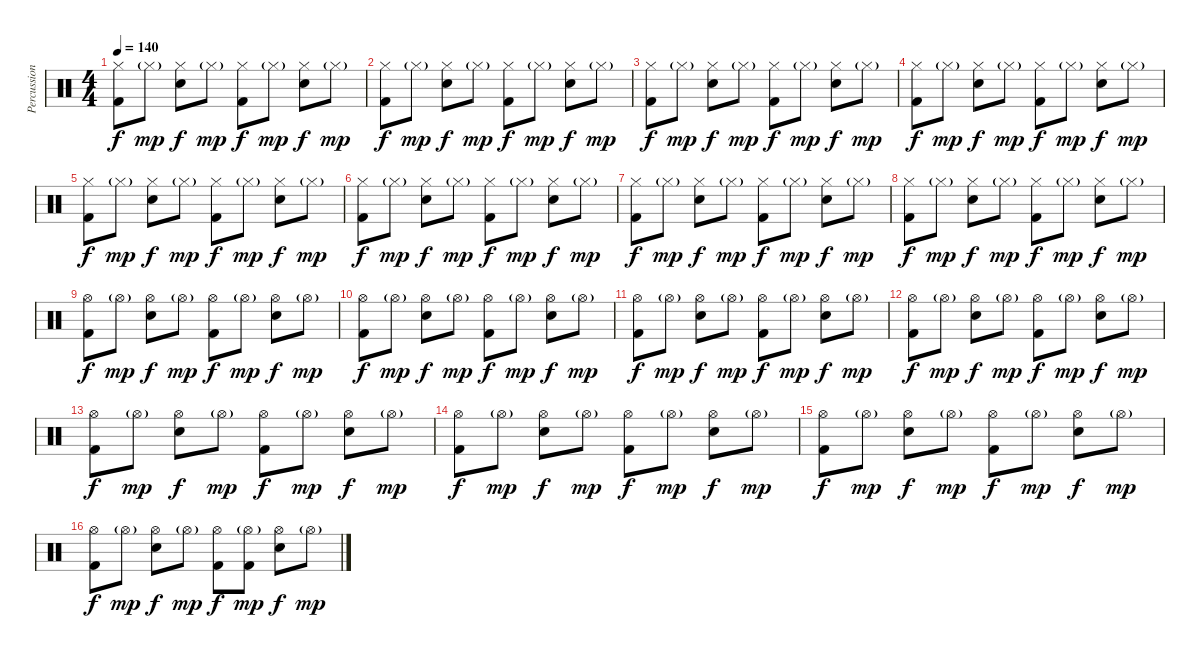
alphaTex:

\track ("Percussion" "Percussion") {instrument percussion}
\staff {score}
\articulation defaults
\ts (4 4)
\tempo 140
\clef neutral
\ks c
("Hi-Hat (closed)" "Kick (hit) 2").8{dy f} "Hi-Hat (closed)"{g}.8{dy mp} ("Hi-Hat (closed)" "Snare (hit) 2").8{dy f} "Hi-Hat (closed)"{g}.8{dy mp} ("Hi-Hat (closed)" "Kick (hit) 2").8{dy f} "Hi-Hat (closed)"{g}.8{dy mp} ("Hi-Hat (closed)" "Snare (hit) 2").8{dy f} "Hi-Hat (closed)"{g}.8{dy mp} |
("Hi-Hat (closed)" "Kick (hit) 2").8{dy f} "Hi-Hat (closed)"{g}.8{dy mp} ("Hi-Hat (closed)" "Snare (hit) 2").8{dy f} "Hi-Hat (closed)"{g}.8{dy mp} ("Hi-Hat (closed)" "Kick (hit) 2").8{dy f} "Hi-Hat (closed)"{g}.8{dy mp} ("Hi-Hat (closed)" "Snare (hit) 2").8{dy f} "Hi-Hat (closed)"{g}.8{dy mp} |
("Hi-Hat (closed)" "Kick (hit) 2").8{dy f} "Hi-Hat (closed)"{g}.8{dy mp} ("Hi-Hat (closed)" "Snare (hit) 2").8{dy f} "Hi-Hat (closed)"{g}.8{dy mp} ("Hi-Hat (closed)" "Kick (hit) 2").8{dy f} "Hi-Hat (closed)"{g}.8{dy mp} ("Hi-Hat (closed)" "Snare (hit) 2").8{dy f} "Hi-Hat (closed)"{g}.8{dy mp} |
("Hi-Hat (closed)" "Kick (hit) 2").8{dy f} "Hi-Hat (closed)"{g}.8{dy mp} ("Hi-Hat (closed)" "Snare (hit) 2").8{dy f} "Hi-Hat (closed)"{g}.8{dy mp} ("Hi-Hat (closed)" "Kick (hit) 2").8{dy f} "Hi-Hat (closed)"{g}.8{dy mp} ("Hi-Hat (closed)" "Snare (hit) 2").8{dy f} "Hi-Hat (closed)"{g}.8{dy mp} |
("Hi-Hat (closed)" "Kick (hit) 2").8{dy f} "Hi-Hat (closed)"{g}.8{dy mp} ("Hi-Hat (closed)" "Snare (hit) 2").8{dy f} "Hi-Hat (closed)"{g}.8{dy mp} ("Hi-Hat (closed)" "Kick (hit) 2").8{dy f} "Hi-Hat (closed)"{g}.8{dy mp} ("Hi-Hat (closed)" "Snare (hit) 2").8{dy f} "Hi-Hat (closed)"{g}.8{dy mp} |
("Hi-Hat (closed)" "Kick (hit) 2").8{dy f} "Hi-Hat (closed)"{g}.8{dy mp} ("Hi-Hat (closed)" "Snare (hit) 2").8{dy f} "Hi-Hat (closed)"{g}.8{dy mp} ("Hi-Hat (closed)" "Kick (hit) 2").8{dy f} "Hi-Hat (closed)"{g}.8{dy mp} ("Hi-Hat (closed)" "Snare (hit) 2").8{dy f} "Hi-Hat (closed)"{g}.8{dy mp} |
("Hi-Hat (closed)" "Kick (hit) 2").8{dy f} "Hi-Hat (closed)"{g}.8{dy mp} ("Hi-Hat (closed)" "Snare (hit) 2").8{dy f} "Hi-Hat (closed)"{g}.8{dy mp} ("Hi-Hat (closed)" "Kick (hit) 2").8{dy f} "Hi-Hat (closed)"{g}.8{dy mp} ("Hi-Hat (closed)" "Snare (hit) 2").8{dy f} "Hi-Hat (closed)"{g}.8{dy mp} |
("Hi-Hat (closed)" "Kick (hit) 2").8{dy f} "Hi-Hat (closed)"{g}.8{dy mp} ("Hi-Hat (closed)" "Snare (hit) 2").8{dy f} "Hi-Hat (closed)"{g}.8{dy mp} ("Hi-Hat (closed)" "Kick (hit) 2").8{dy f} "Hi-Hat (closed)"{g}.8{dy mp} ("Hi-Hat (closed)" "Snare (hit) 2").8{dy f} "Hi-Hat (closed)"{g}.8{dy mp} |
("Hi-Hat (open)" "Kick (hit) 2").8{dy f} "Hi-Hat (open)"{g}.8{dy mp} ("Hi-Hat (open)" "Snare (hit) 2").8{dy f} "Hi-Hat (open)"{g}.8{dy mp} ("Hi-Hat (open)" "Kick (hit) 2").8{dy f} "Hi-Hat (open)"{g}.8{dy mp} ("Hi-Hat (open)" "Snare (hit) 2").8{dy f} "Hi-Hat (open)"{g}.8{dy mp} |
("Hi-Hat (open)" "Kick (hit) 2").8{dy f} "Hi-Hat (open)"{g}.8{dy mp} ("Hi-Hat (open)" "Snare (hit) 2").8{dy f} "Hi-Hat (open)"{g}.8{dy mp} ("Hi-Hat (open)" "Kick (hit) 2").8{dy f} "Hi-Hat (open)"{g}.8{dy mp} ("Hi-Hat (open)" "Snare (hit) 2").8{dy f} "Hi-Hat (open)"{g}.8{dy mp} |
("Hi-Hat (open)" "Kick (hit) 2").8{dy f} "Hi-Hat (open)"{g}.8{dy mp} ("Hi-Hat (open)" "Snare (hit) 2").8{dy f} "Hi-Hat (open)"{g}.8{dy mp} ("Hi-Hat (open)" "Kick (hit) 2").8{dy f} "Hi-Hat (open)"{g}.8{dy mp} ("Hi-Hat (open)" "Snare (hit) 2").8{dy f} "Hi-Hat (open)"{g}.8{dy mp} |
("Hi-Hat (open)" "Kick (hit) 2").8{dy f} "Hi-Hat (open)"{g}.8{dy mp} ("Hi-Hat (open)" "Snare (hit) 2").8{dy f} "Hi-Hat (open)"{g}.8{dy mp} ("Hi-Hat (open)" "Kick (hit) 2").8{dy f} "Hi-Hat (open)"{g}.8{dy mp} ("Hi-Hat (open)" "Snare (hit) 2").8{dy f} "Hi-Hat (open)"{g}.8{dy mp} |
("Hi-Hat (open)" "Kick (hit) 2").8{dy f} "Hi-Hat (open)"{g}.8{dy mp} ("Hi-Hat (open)" "Snare (hit) 2").8{dy f} "Hi-Hat (open)"{g}.8{dy mp} ("Hi-Hat (open)" "Kick (hit) 2").8{dy f} "Hi-Hat (open)"{g}.8{dy mp} ("Hi-Hat (open)" "Snare (hit) 2").8{dy f} "Hi-Hat (open)"{g}.8{dy mp} |
("Hi-Hat (open)" "Kick (hit) 2").8{dy f} "Hi-Hat (open)"{g}.8{dy mp} ("Hi-Hat (open)" "Snare (hit) 2").8{dy f} "Hi-Hat (open)"{g}.8{dy mp} ("Hi-Hat (open)" "Kick (hit) 2").8{dy f} "Hi-Hat (open)"{g}.8{dy mp} ("Hi-Hat (open)" "Snare (hit) 2").8{dy f} "Hi-Hat (open)"{g}.8{dy mp} |
("Hi-Hat (open)" "Kick (hit) 2").8{dy f} "Hi-Hat (open)"{g}.8{dy mp} ("Hi-Hat (open)" "Snare (hit) 2").8{dy f} "Hi-Hat (open)"{g}.8{dy mp} ("Hi-Hat (open)" "Kick (hit) 2").8{dy f} "Hi-Hat (open)"{g}.8{dy mp} ("Hi-Hat (open)" "Snare (hit) 2").8{dy f} "Hi-Hat (open)"{g}.8{dy mp} |
("Hi-Hat (open)" "Kick (hit) 2").8{dy f} "Hi-Hat (open)"{g}.8{dy mp} ("Hi-Hat (open)" "Snare (hit) 2").8{dy f} "Hi-Hat (open)"{g}.8{dy mp} ("Hi-Hat (open)" "Kick (hit) 2").8{dy f} ("Hi-Hat (open)"{g} "Kick (hit) 2").8{dy mp} ("Hi-Hat (open)" "Snare (hit) 2").8{dy f} "Hi-Hat (open)"{g}.8{dy mp}
